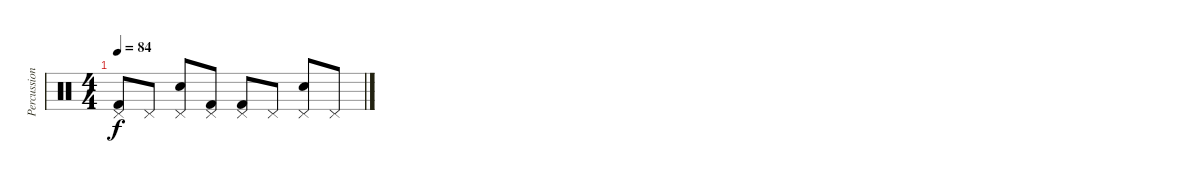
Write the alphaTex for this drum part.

\track ("Percussion" "Percussion") {instrument percussion}
\staff {score}
\articulation defaults
\ts (4 4)
\tempo 84
\clef neutral
\ks c
("Pedal Hi-Hat (hit)" "Kick (hit) 2").8{dy f} "Pedal Hi-Hat (hit)".8 ("Pedal Hi-Hat (hit)" "Snare (hit) 2").8 ("Pedal Hi-Hat (hit)" "Kick (hit) 2").8 ("Pedal Hi-Hat (hit)" "Kick (hit) 2").8 "Pedal Hi-Hat (hit)".8 ("Pedal Hi-Hat (hit)" "Snare (hit) 2").8 "Pedal Hi-Hat (hit)".8
